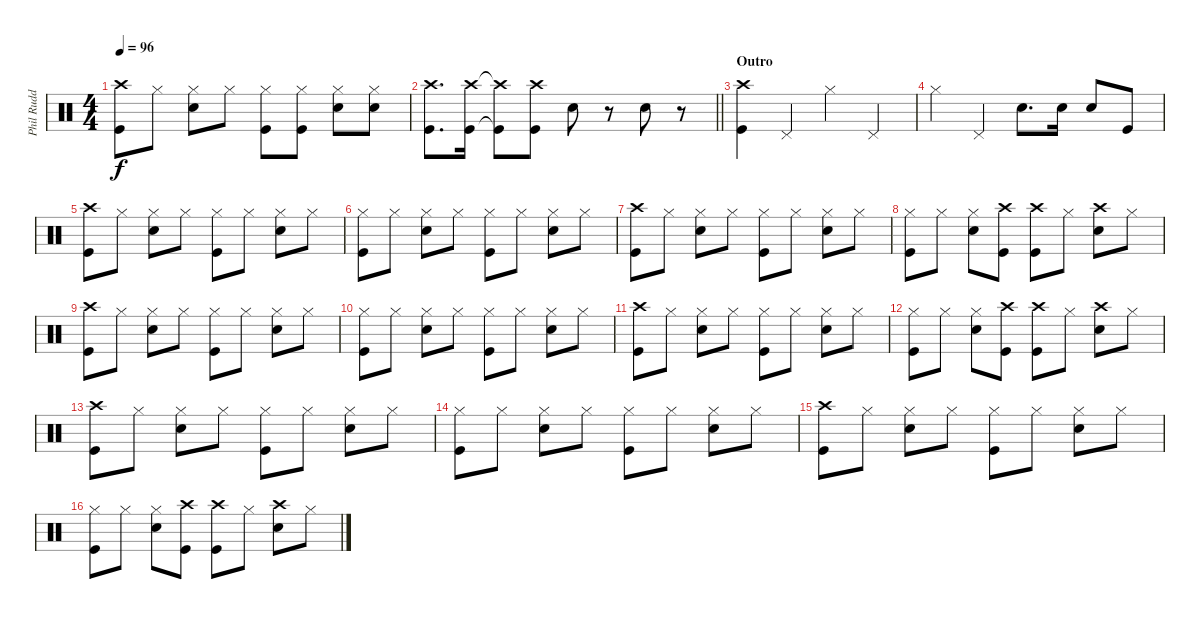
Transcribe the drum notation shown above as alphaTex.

\track ("Phil Rudd" "Phil Rudd") {instrument percussion}
\staff {score}
\articulation defaults
\ts (4 4)
\tempo 96
\clef neutral
\ks c
("Crash high (hit)" "Kick (hit)").8{dy f} "Hi-Hat (closed)".8 ("Hi-Hat (closed)" "Electric Snare (hit)").8 "Hi-Hat (closed)".8 ("Hi-Hat (closed)" "Kick (hit)").8 ("Hi-Hat (closed)" "Kick (hit)").8 ("Hi-Hat (closed)" "Electric Snare (hit)").8 ("Hi-Hat (closed)" "Electric Snare (hit)").8 |
\barLineRight lightlight
("Crash high (hit)" "Kick (hit)").8{d} ("Crash high (hit)" "Kick (hit)").16 ("Crash high (hit)"{t} "Kick (hit)"{t}).8 ("Crash high (hit)" "Kick (hit)").8 "Electric Snare (hit)".8 r.8 "Electric Snare (hit)".8 r.8 |
\section ("" "Outro")
("Crash high (hit)" "Kick (hit)").4 "Pedal Hi-Hat (hit)".4 "Hi-Hat (closed)".4 "Pedal Hi-Hat (hit)".4 |
"Hi-Hat (closed)".4 "Pedal Hi-Hat (hit)".4 "Electric Snare (hit)".8{d} "Electric Snare (hit)".16 "Electric Snare (hit)".8 "Kick (hit)".8 |
("Crash high (hit)" "Kick (hit)").8 "Hi-Hat (closed)".8 ("Hi-Hat (closed)" "Electric Snare (hit)").8 "Hi-Hat (closed)".8 ("Hi-Hat (closed)" "Kick (hit)").8 "Hi-Hat (closed)".8 ("Hi-Hat (closed)" "Electric Snare (hit)").8 "Hi-Hat (closed)".8 |
("Hi-Hat (closed)" "Kick (hit)").8 "Hi-Hat (closed)".8 ("Hi-Hat (closed)" "Electric Snare (hit)").8 "Hi-Hat (closed)".8 ("Hi-Hat (closed)" "Kick (hit)").8 "Hi-Hat (closed)".8 ("Hi-Hat (closed)" "Electric Snare (hit)").8 "Hi-Hat (closed)".8 |
("Crash high (hit)" "Kick (hit)").8 "Hi-Hat (closed)".8 ("Hi-Hat (closed)" "Electric Snare (hit)").8 "Hi-Hat (closed)".8 ("Hi-Hat (closed)" "Kick (hit)").8 "Hi-Hat (closed)".8 ("Hi-Hat (closed)" "Electric Snare (hit)").8 "Hi-Hat (closed)".8 |
("Hi-Hat (closed)" "Kick (hit)").8 "Hi-Hat (closed)".8 ("Hi-Hat (closed)" "Electric Snare (hit)").8 ("Crash high (hit)" "Kick (hit)").8 ("Crash high (hit)" "Kick (hit)").8 "Hi-Hat (closed)".8 ("Crash high (hit)" "Electric Snare (hit)").8 "Hi-Hat (closed)".8 |
("Crash high (hit)" "Kick (hit)").8 "Hi-Hat (closed)".8 ("Hi-Hat (closed)" "Electric Snare (hit)").8 "Hi-Hat (closed)".8 ("Hi-Hat (closed)" "Kick (hit)").8 "Hi-Hat (closed)".8 ("Hi-Hat (closed)" "Electric Snare (hit)").8 "Hi-Hat (closed)".8 |
("Hi-Hat (closed)" "Kick (hit)").8 "Hi-Hat (closed)".8 ("Hi-Hat (closed)" "Electric Snare (hit)").8 "Hi-Hat (closed)".8 ("Hi-Hat (closed)" "Kick (hit)").8 "Hi-Hat (closed)".8 ("Hi-Hat (closed)" "Electric Snare (hit)").8 "Hi-Hat (closed)".8 |
("Crash high (hit)" "Kick (hit)").8 "Hi-Hat (closed)".8 ("Hi-Hat (closed)" "Electric Snare (hit)").8 "Hi-Hat (closed)".8 ("Hi-Hat (closed)" "Kick (hit)").8 "Hi-Hat (closed)".8 ("Hi-Hat (closed)" "Electric Snare (hit)").8 "Hi-Hat (closed)".8 |
("Hi-Hat (closed)" "Kick (hit)").8 "Hi-Hat (closed)".8 ("Hi-Hat (closed)" "Electric Snare (hit)").8 ("Crash high (hit)" "Kick (hit)").8 ("Crash high (hit)" "Kick (hit)").8 "Hi-Hat (closed)".8 ("Crash high (hit)" "Electric Snare (hit)").8 "Hi-Hat (closed)".8 |
("Crash high (hit)" "Kick (hit)").8 "Hi-Hat (closed)".8 ("Hi-Hat (closed)" "Electric Snare (hit)").8 "Hi-Hat (closed)".8 ("Hi-Hat (closed)" "Kick (hit)").8 "Hi-Hat (closed)".8 ("Hi-Hat (closed)" "Electric Snare (hit)").8 "Hi-Hat (closed)".8 |
("Hi-Hat (closed)" "Kick (hit)").8 "Hi-Hat (closed)".8 ("Hi-Hat (closed)" "Electric Snare (hit)").8 "Hi-Hat (closed)".8 ("Hi-Hat (closed)" "Kick (hit)").8 "Hi-Hat (closed)".8 ("Hi-Hat (closed)" "Electric Snare (hit)").8 "Hi-Hat (closed)".8 |
("Crash high (hit)" "Kick (hit)").8 "Hi-Hat (closed)".8 ("Hi-Hat (closed)" "Electric Snare (hit)").8 "Hi-Hat (closed)".8 ("Hi-Hat (closed)" "Kick (hit)").8 "Hi-Hat (closed)".8 ("Hi-Hat (closed)" "Electric Snare (hit)").8 "Hi-Hat (closed)".8 |
("Hi-Hat (closed)" "Kick (hit)").8 "Hi-Hat (closed)".8 ("Hi-Hat (closed)" "Electric Snare (hit)").8 ("Crash high (hit)" "Kick (hit)").8 ("Crash high (hit)" "Kick (hit)").8 "Hi-Hat (closed)".8 ("Crash high (hit)" "Electric Snare (hit)").8 "Hi-Hat (closed)".8
